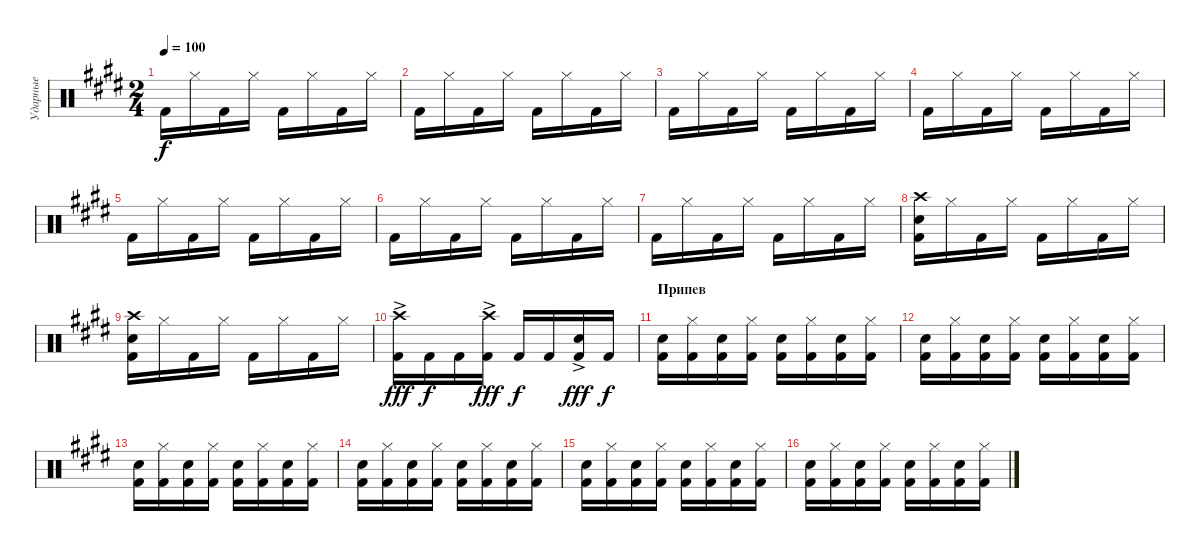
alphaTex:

\track ("Ударные" "Ударные") {instrument percussion}
\staff {score}
\articulation defaults
\ts (2 4)
\tempo 100
\clef neutral
\ks c#minor "Kick (hit) 2".16{dy f} "Hi-Hat (closed)".16 "Kick (hit) 2".16 "Hi-Hat (closed)".16 "Kick (hit) 2".16 "Hi-Hat (closed)".16 "Kick (hit) 2".16 "Hi-Hat (closed)".16
|
"Kick (hit) 2".16 "Hi-Hat (closed)".16 "Kick (hit) 2".16 "Hi-Hat (closed)".16 "Kick (hit) 2".16 "Hi-Hat (closed)".16 "Kick (hit) 2".16 "Hi-Hat (closed)".16 |
"Kick (hit) 2".16 "Hi-Hat (closed)".16 "Kick (hit) 2".16 "Hi-Hat (closed)".16 "Kick (hit) 2".16 "Hi-Hat (closed)".16 "Kick (hit) 2".16 "Hi-Hat (closed)".16 |
"Kick (hit) 2".16 "Hi-Hat (closed)".16 "Kick (hit) 2".16 "Hi-Hat (closed)".16 "Kick (hit) 2".16 "Hi-Hat (closed)".16 "Kick (hit) 2".16 "Hi-Hat (closed)".16 |
"Kick (hit) 2".16 "Hi-Hat (closed)".16 "Kick (hit) 2".16 "Hi-Hat (closed)".16 "Kick (hit) 2".16 "Hi-Hat (closed)".16 "Kick (hit) 2".16 "Hi-Hat (closed)".16 |
"Kick (hit) 2".16 "Hi-Hat (closed)".16 "Kick (hit) 2".16 "Hi-Hat (closed)".16 "Kick (hit) 2".16 "Hi-Hat (closed)".16 "Kick (hit) 2".16 "Hi-Hat (closed)".16 |
"Kick (hit) 2".16 "Hi-Hat (closed)".16 "Kick (hit) 2".16 "Hi-Hat (closed)".16 "Kick (hit) 2".16 "Hi-Hat (closed)".16 "Kick (hit) 2".16 "Hi-Hat (closed)".16 |
("Snare (hit) 2" "Crash high (hit)" "Kick (hit) 2").16 "Hi-Hat (closed)".16 "Kick (hit) 2".16 "Hi-Hat (closed)".16 "Kick (hit) 2".16 "Hi-Hat (closed)".16 "Kick (hit) 2".16 "Hi-Hat (closed)".16 |
("Snare (hit) 2" "Crash high (hit)" "Kick (hit) 2").16 "Hi-Hat (closed)".16 "Kick (hit) 2".16 "Hi-Hat (closed)".16 "Kick (hit) 2".16 "Hi-Hat (closed)".16 "Kick (hit) 2".16 "Hi-Hat (closed)".16 |
("Crash high (hit)"{ac} "Kick (hit) 2").16{dy fff} "Kick (hit) 2".16{dy f} "Kick (hit) 2".16 ("Crash high (hit)"{ac} "Kick (hit) 2").16{dy fff} "Kick (hit) 2".16{dy f} "Kick (hit) 2".16 ("Snare (hit) 2"{ac} "Kick (hit) 2").16{dy fff} "Kick (hit) 2".16{dy f} |
\section ("" "Припев")
("Snare (hit) 2" "Kick (hit) 2").16 ("Hi-Hat (closed)" "Kick (hit) 2").16 ("Snare (hit) 2" "Kick (hit) 2").16 ("Hi-Hat (closed)" "Kick (hit) 2").16 ("Snare (hit) 2" "Kick (hit) 2").16 ("Hi-Hat (closed)" "Kick (hit) 2").16 ("Snare (hit) 2" "Kick (hit) 2").16 ("Hi-Hat (closed)" "Kick (hit) 2").16 |
("Snare (hit) 2" "Kick (hit) 2").16 ("Hi-Hat (closed)" "Kick (hit) 2").16 ("Snare (hit) 2" "Kick (hit) 2").16 ("Hi-Hat (closed)" "Kick (hit) 2").16 ("Snare (hit) 2" "Kick (hit) 2").16 ("Hi-Hat (closed)" "Kick (hit) 2").16 ("Snare (hit) 2" "Kick (hit) 2").16 ("Hi-Hat (closed)" "Kick (hit) 2").16 |
("Snare (hit) 2" "Kick (hit) 2").16 ("Hi-Hat (closed)" "Kick (hit) 2").16 ("Snare (hit) 2" "Kick (hit) 2").16 ("Hi-Hat (closed)" "Kick (hit) 2").16 ("Snare (hit) 2" "Kick (hit) 2").16 ("Hi-Hat (closed)" "Kick (hit) 2").16 ("Snare (hit) 2" "Kick (hit) 2").16 ("Hi-Hat (closed)" "Kick (hit) 2").16 |
("Snare (hit) 2" "Kick (hit) 2").16 ("Hi-Hat (closed)" "Kick (hit) 2").16 ("Snare (hit) 2" "Kick (hit) 2").16 ("Hi-Hat (closed)" "Kick (hit) 2").16 ("Snare (hit) 2" "Kick (hit) 2").16 ("Hi-Hat (closed)" "Kick (hit) 2").16 ("Snare (hit) 2" "Kick (hit) 2").16 ("Hi-Hat (closed)" "Kick (hit) 2").16 |
("Snare (hit) 2" "Kick (hit) 2").16 ("Hi-Hat (closed)" "Kick (hit) 2").16 ("Snare (hit) 2" "Kick (hit) 2").16 ("Hi-Hat (closed)" "Kick (hit) 2").16 ("Snare (hit) 2" "Kick (hit) 2").16 ("Hi-Hat (closed)" "Kick (hit) 2").16 ("Snare (hit) 2" "Kick (hit) 2").16 ("Hi-Hat (closed)" "Kick (hit) 2").16 |
("Snare (hit) 2" "Kick (hit) 2").16 ("Hi-Hat (closed)" "Kick (hit) 2").16 ("Snare (hit) 2" "Kick (hit) 2").16 ("Hi-Hat (closed)" "Kick (hit) 2").16 ("Snare (hit) 2" "Kick (hit) 2").16 ("Hi-Hat (closed)" "Kick (hit) 2").16 ("Snare (hit) 2" "Kick (hit) 2").16 ("Hi-Hat (closed)" "Kick (hit) 2").16
